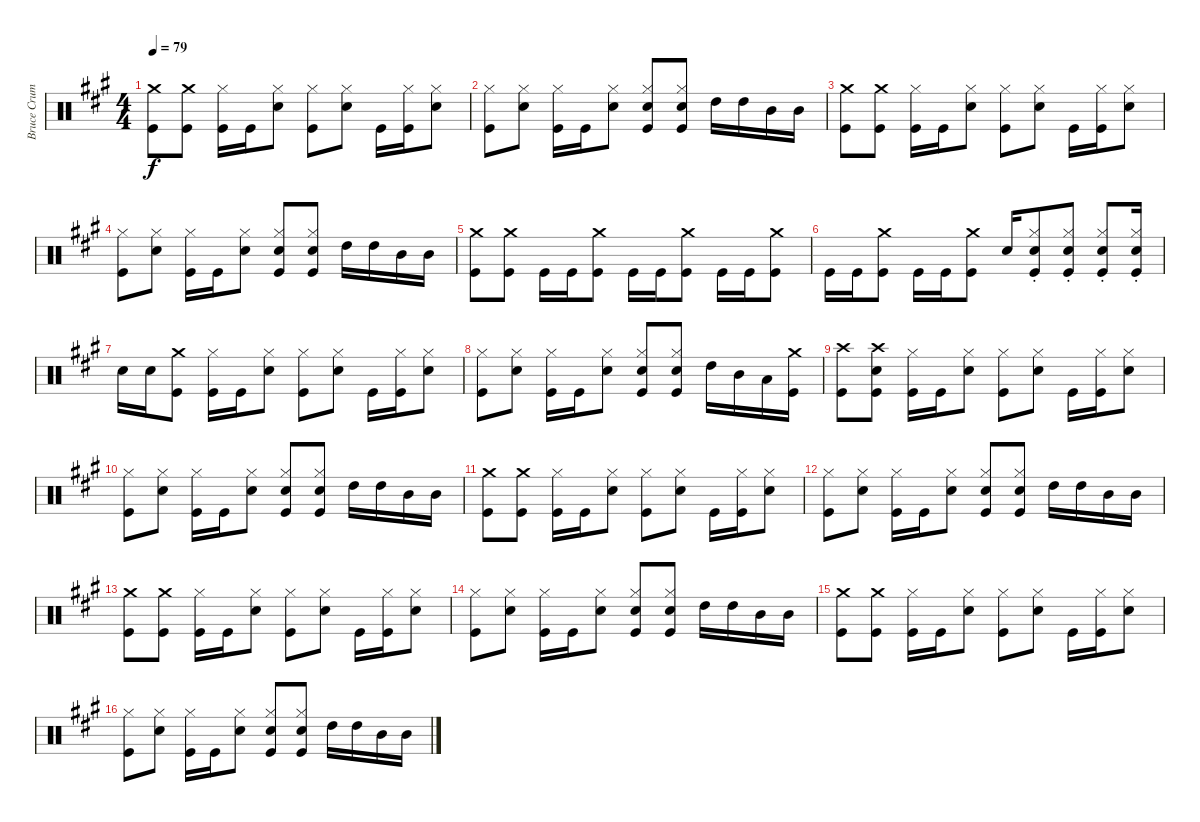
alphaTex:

\track ("Bruce Crump Drums" "Bruce Crum") {instrument percussion}
\staff {score}
\articulation defaults
\ts (4 4)
\tempo 79
\clef neutral
\ks a
("Crash medium (hit)" "Kick (hit)").8{dy f} ("Crash medium (hit)" "Kick (hit)").8 ("Hi-Hat (closed)" "Kick (hit)").16 "Kick (hit)".16 ("Hi-Hat (closed)" "Snare (hit) 2").8 ("Hi-Hat (closed)" "Kick (hit)").8 ("Hi-Hat (closed)" "Snare (hit) 2").8 "Kick (hit)".16 ("Hi-Hat (closed)" "Kick (hit)").16 ("Hi-Hat (closed)" "Snare (hit) 2").8 |
("Hi-Hat (closed)" "Kick (hit)").8 ("Hi-Hat (closed)" "Snare (hit) 2").8 ("Hi-Hat (closed)" "Kick (hit)").16 "Kick (hit)".16 ("Hi-Hat (closed)" "Snare (hit) 2").8 ("Hi-Hat (closed)" "Snare (hit) 2" "Kick (hit)").8 ("Hi-Hat (closed)" "Snare (hit) 2" "Kick (hit)").8 "High Tom (hit)".16 "High Tom (hit)".16 "Mid Tom (hit)".16 "Mid Tom (hit)".16 |
("Crash medium (hit)" "Kick (hit)").8 ("Crash medium (hit)" "Kick (hit)").8 ("Hi-Hat (closed)" "Kick (hit)").16 "Kick (hit)".16 ("Hi-Hat (closed)" "Snare (hit) 2").8 ("Hi-Hat (closed)" "Kick (hit)").8 ("Hi-Hat (closed)" "Snare (hit) 2").8 "Kick (hit)".16 ("Hi-Hat (closed)" "Kick (hit)").16 ("Hi-Hat (closed)" "Snare (hit) 2").8 |
("Hi-Hat (closed)" "Kick (hit)").8 ("Hi-Hat (closed)" "Snare (hit) 2").8 ("Hi-Hat (closed)" "Kick (hit)").16 "Kick (hit)".16 ("Hi-Hat (closed)" "Snare (hit) 2").8 ("Hi-Hat (closed)" "Snare (hit) 2" "Kick (hit)").8 ("Hi-Hat (closed)" "Snare (hit) 2" "Kick (hit)").8 "High Tom (hit)".16 "High Tom (hit)".16 "Mid Tom (hit)".16 "Mid Tom (hit)".16 |
("Crash medium (hit)" "Kick (hit)").8 ("Crash medium (hit)" "Kick (hit)").8 "Kick (hit)".16 "Kick (hit)".16 ("Crash medium (hit)" "Kick (hit)").8 "Kick (hit)".16 "Kick (hit)".16 ("Crash medium (hit)" "Kick (hit)").8 "Kick (hit)".16 "Kick (hit)".16 ("Crash medium (hit)" "Kick (hit)").8 |
"Kick (hit)".16 "Kick (hit)".16 ("Crash medium (hit)" "Kick (hit)").8 "Kick (hit)".16 "Kick (hit)".16 ("Crash medium (hit)" "Kick (hit)").8 "Snare (hit) 2".16 ("Hi-Hat (closed)"{st} "Snare (hit) 2"{st} "Kick (hit)"{st}).8 ("Hi-Hat (closed)"{st} "Snare (hit) 2"{st} "Kick (hit)"{st}).8 ("Hi-Hat (closed)"{st} "Snare (hit) 2"{st} "Kick (hit)"{st}).8 ("Hi-Hat (closed)"{st} "Snare (hit) 2"{st} "Kick (hit)"{st}).16 |
"Snare (hit) 2".16 "Snare (hit) 2".16 ("Crash medium (hit)" "Kick (hit)").8 ("Hi-Hat (closed)" "Kick (hit)").16 "Kick (hit)".16 ("Hi-Hat (closed)" "Snare (hit) 2").8 ("Hi-Hat (closed)" "Kick (hit)").8 ("Hi-Hat (closed)" "Snare (hit) 2").8 "Kick (hit)".16 ("Hi-Hat (closed)" "Kick (hit)").16 ("Hi-Hat (closed)" "Snare (hit) 2").8 |
("Hi-Hat (closed)" "Kick (hit)").8 ("Hi-Hat (closed)" "Snare (hit) 2").8 ("Hi-Hat (closed)" "Kick (hit)").16 "Kick (hit)".16 ("Hi-Hat (closed)" "Snare (hit) 2").8 ("Hi-Hat (closed)" "Snare (hit) 2" "Kick (hit)").8 ("Hi-Hat (closed)" "Snare (hit) 2" "Kick (hit)").8 "High Tom (hit)".16 "Mid Tom (hit)".16 "Low Tom (hit)".16 ("Crash medium (hit)" "Kick (hit)").16 |
("Crash high (hit)" "Kick (hit)").8 ("Crash high (hit)" "Snare (hit) 2" "Kick (hit)").8 ("Hi-Hat (closed)" "Kick (hit)").16 "Kick (hit)".16 ("Hi-Hat (closed)" "Snare (hit) 2").8 ("Hi-Hat (closed)" "Kick (hit)").8 ("Hi-Hat (closed)" "Snare (hit) 2").8 "Kick (hit)".16 ("Hi-Hat (closed)" "Kick (hit)").16 ("Hi-Hat (closed)" "Snare (hit) 2").8 |
("Hi-Hat (closed)" "Kick (hit)").8 ("Hi-Hat (closed)" "Snare (hit) 2").8 ("Hi-Hat (closed)" "Kick (hit)").16 "Kick (hit)".16 ("Hi-Hat (closed)" "Snare (hit) 2").8 ("Hi-Hat (closed)" "Snare (hit) 2" "Kick (hit)").8 ("Hi-Hat (closed)" "Snare (hit) 2" "Kick (hit)").8 "High Tom (hit)".16 "High Tom (hit)".16 "Mid Tom (hit)".16 "Mid Tom (hit)".16 |
("Crash medium (hit)" "Kick (hit)").8 ("Crash medium (hit)" "Kick (hit)").8 ("Hi-Hat (closed)" "Kick (hit)").16 "Kick (hit)".16 ("Hi-Hat (closed)" "Snare (hit) 2").8 ("Hi-Hat (closed)" "Kick (hit)").8 ("Hi-Hat (closed)" "Snare (hit) 2").8 "Kick (hit)".16 ("Hi-Hat (closed)" "Kick (hit)").16 ("Hi-Hat (closed)" "Snare (hit) 2").8 |
("Hi-Hat (closed)" "Kick (hit)").8 ("Hi-Hat (closed)" "Snare (hit) 2").8 ("Hi-Hat (closed)" "Kick (hit)").16 "Kick (hit)".16 ("Hi-Hat (closed)" "Snare (hit) 2").8 ("Hi-Hat (closed)" "Snare (hit) 2" "Kick (hit)").8 ("Hi-Hat (closed)" "Snare (hit) 2" "Kick (hit)").8 "High Tom (hit)".16 "High Tom (hit)".16 "Mid Tom (hit)".16 "Mid Tom (hit)".16 |
("Crash medium (hit)" "Kick (hit)").8 ("Crash medium (hit)" "Kick (hit)").8 ("Hi-Hat (closed)" "Kick (hit)").16 "Kick (hit)".16 ("Hi-Hat (closed)" "Snare (hit) 2").8 ("Hi-Hat (closed)" "Kick (hit)").8 ("Hi-Hat (closed)" "Snare (hit) 2").8 "Kick (hit)".16 ("Hi-Hat (closed)" "Kick (hit)").16 ("Hi-Hat (closed)" "Snare (hit) 2").8 |
("Hi-Hat (closed)" "Kick (hit)").8 ("Hi-Hat (closed)" "Snare (hit) 2").8 ("Hi-Hat (closed)" "Kick (hit)").16 "Kick (hit)".16 ("Hi-Hat (closed)" "Snare (hit) 2").8 ("Hi-Hat (closed)" "Snare (hit) 2" "Kick (hit)").8 ("Hi-Hat (closed)" "Snare (hit) 2" "Kick (hit)").8 "High Tom (hit)".16 "High Tom (hit)".16 "Mid Tom (hit)".16 "Mid Tom (hit)".16 |
("Crash medium (hit)" "Kick (hit)").8 ("Crash medium (hit)" "Kick (hit)").8 ("Hi-Hat (closed)" "Kick (hit)").16 "Kick (hit)".16 ("Hi-Hat (closed)" "Snare (hit) 2").8 ("Hi-Hat (closed)" "Kick (hit)").8 ("Hi-Hat (closed)" "Snare (hit) 2").8 "Kick (hit)".16 ("Hi-Hat (closed)" "Kick (hit)").16 ("Hi-Hat (closed)" "Snare (hit) 2").8 |
("Hi-Hat (closed)" "Kick (hit)").8 ("Hi-Hat (closed)" "Snare (hit) 2").8 ("Hi-Hat (closed)" "Kick (hit)").16 "Kick (hit)".16 ("Hi-Hat (closed)" "Snare (hit) 2").8 ("Hi-Hat (closed)" "Snare (hit) 2" "Kick (hit)").8 ("Hi-Hat (closed)" "Snare (hit) 2" "Kick (hit)").8 "High Tom (hit)".16 "High Tom (hit)".16 "Mid Tom (hit)".16 "Mid Tom (hit)".16
